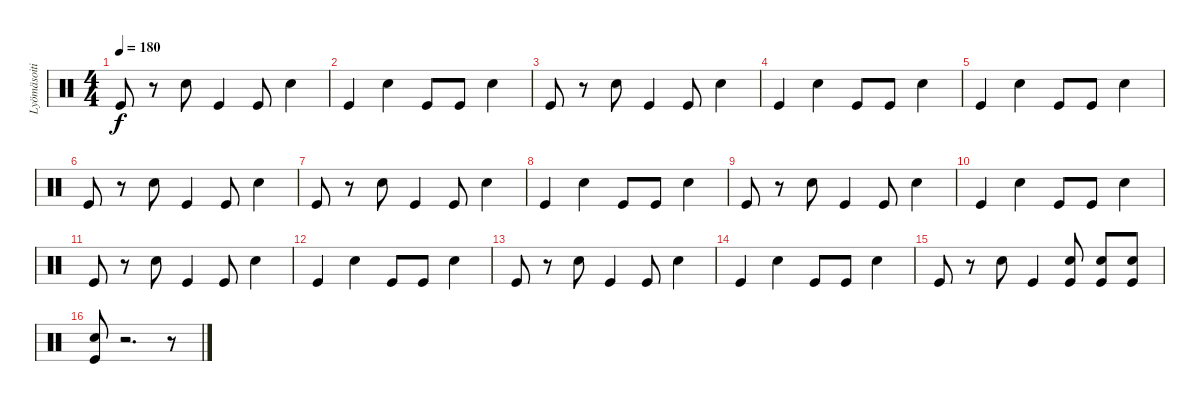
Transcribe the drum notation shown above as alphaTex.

\track ("Lyömäsoitin" "Lyömäsoiti") {instrument percussion}
\staff {score}
\articulation defaults
\ts (4 4)
\tempo 180
\clef neutral
\ks c "Kick (hit)".8{dy f}
r.8 "Snare (hit) 2".8 "Kick (hit)".4 "Kick (hit)".8 "Snare (hit) 2".4 |
"Kick (hit)".4 "Snare (hit) 2".4 "Kick (hit)".8 "Kick (hit)".8 "Snare (hit) 2".4 |
"Kick (hit)".8 r.8 "Snare (hit) 2".8 "Kick (hit)".4 "Kick (hit)".8 "Snare (hit) 2".4 |
"Kick (hit)".4 "Snare (hit) 2".4 "Kick (hit)".8 "Kick (hit)".8 "Snare (hit) 2".4 |
"Kick (hit)".4 "Snare (hit) 2".4 "Kick (hit)".8 "Kick (hit)".8 "Snare (hit) 2".4 |
"Kick (hit)".8 r.8 "Snare (hit) 2".8 "Kick (hit)".4 "Kick (hit)".8 "Snare (hit) 2".4 |
"Kick (hit)".8 r.8 "Snare (hit) 2".8 "Kick (hit)".4 "Kick (hit)".8 "Snare (hit) 2".4 |
"Kick (hit)".4 "Snare (hit) 2".4 "Kick (hit)".8 "Kick (hit)".8 "Snare (hit) 2".4 |
"Kick (hit)".8 r.8 "Snare (hit) 2".8 "Kick (hit)".4 "Kick (hit)".8 "Snare (hit) 2".4 |
"Kick (hit)".4 "Snare (hit) 2".4 "Kick (hit)".8 "Kick (hit)".8 "Snare (hit) 2".4 |
"Kick (hit)".8 r.8 "Snare (hit) 2".8 "Kick (hit)".4 "Kick (hit)".8 "Snare (hit) 2".4 |
"Kick (hit)".4 "Snare (hit) 2".4 "Kick (hit)".8 "Kick (hit)".8 "Snare (hit) 2".4 |
"Kick (hit)".8 r.8 "Snare (hit) 2".8 "Kick (hit)".4 "Kick (hit)".8 "Snare (hit) 2".4 |
"Kick (hit)".4 "Snare (hit) 2".4 "Kick (hit)".8 "Kick (hit)".8 "Snare (hit) 2".4 |
"Kick (hit)".8 r.8 "Snare (hit) 2".8 "Kick (hit)".4 ("Snare (hit) 2" "Kick (hit)").8 ("Snare (hit) 2" "Kick (hit)").8 ("Snare (hit) 2" "Kick (hit)").8 |
("Snare (hit) 2" "Kick (hit)").8 r.2{d} r.8
